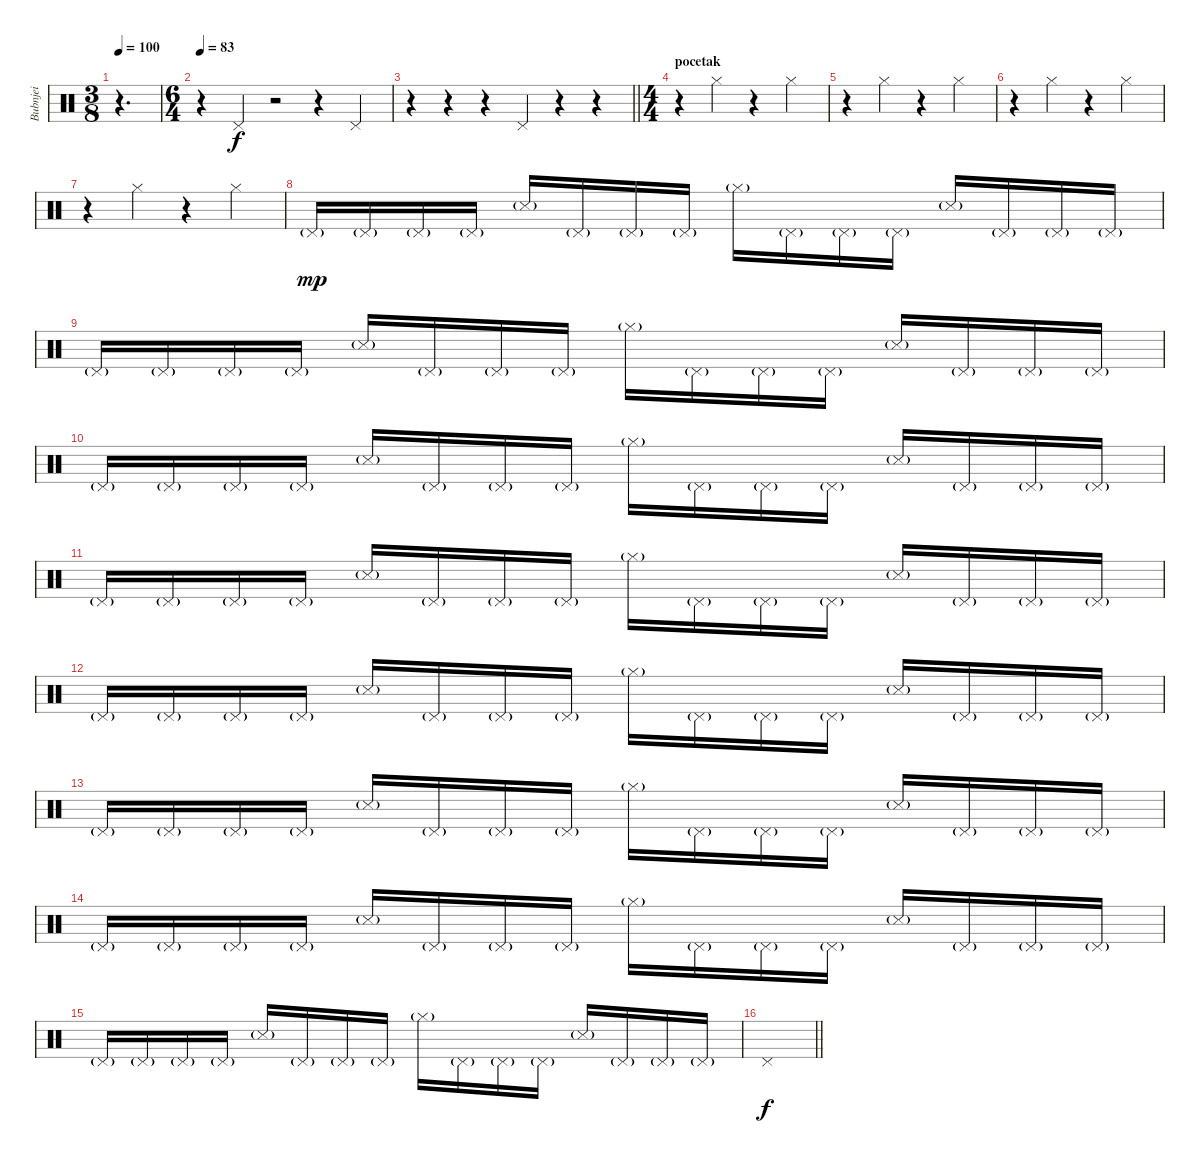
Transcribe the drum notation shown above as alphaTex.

\track ("Bubnjei" "Bubnjei") {instrument percussion}
\staff {score}
\articulation defaults
\ts (3 8)
\tempo 100
\clef neutral
\ks c
r.4{d dy mp} |
\ts (6 4)
\tempo 83
r.4 "Pedal Hi-Hat (hit)".4{dy f} r.2 r.4 "Pedal Hi-Hat (hit)".4 |
\barLineRight lightlight
r.4 r.4 r.4 "Pedal Hi-Hat (hit)".4 r.4 r.4 |
\ts (4 4)
\section ("" "pocetak")
r.4 "Hi-Hat (closed)".4 r.4 "Hi-Hat (closed)".4 |
r.4 "Hi-Hat (closed)".4 r.4 "Hi-Hat (closed)".4 |
r.4 "Hi-Hat (closed)".4 r.4 "Hi-Hat (closed)".4 |
r.4 "Hi-Hat (closed)".4 r.4 "Hi-Hat (closed)".4 |
"Pedal Hi-Hat (hit)"{g}.16{dy mp} "Pedal Hi-Hat (hit)"{g}.16 "Pedal Hi-Hat (hit)"{g}.16 "Pedal Hi-Hat (hit)"{g}.16 "Snare (side stick) 3"{g}.16 "Pedal Hi-Hat (hit)"{g}.16 "Pedal Hi-Hat (hit)"{g}.16 "Pedal Hi-Hat (hit)"{g}.16 "Hi-Hat (closed)"{g}.16 "Pedal Hi-Hat (hit)"{g}.16 "Pedal Hi-Hat (hit)"{g}.16 "Pedal Hi-Hat (hit)"{g}.16 "Snare (side stick) 3"{g}.16 "Pedal Hi-Hat (hit)"{g}.16 "Pedal Hi-Hat (hit)"{g}.16 "Pedal Hi-Hat (hit)"{g}.16 |
"Pedal Hi-Hat (hit)"{g}.16 "Pedal Hi-Hat (hit)"{g}.16 "Pedal Hi-Hat (hit)"{g}.16 "Pedal Hi-Hat (hit)"{g}.16 "Snare (side stick) 3"{g}.16 "Pedal Hi-Hat (hit)"{g}.16 "Pedal Hi-Hat (hit)"{g}.16 "Pedal Hi-Hat (hit)"{g}.16 "Hi-Hat (closed)"{g}.16 "Pedal Hi-Hat (hit)"{g}.16 "Pedal Hi-Hat (hit)"{g}.16 "Pedal Hi-Hat (hit)"{g}.16 "Snare (side stick) 3"{g}.16 "Pedal Hi-Hat (hit)"{g}.16 "Pedal Hi-Hat (hit)"{g}.16 "Pedal Hi-Hat (hit)"{g}.16 |
"Pedal Hi-Hat (hit)"{g}.16 "Pedal Hi-Hat (hit)"{g}.16 "Pedal Hi-Hat (hit)"{g}.16 "Pedal Hi-Hat (hit)"{g}.16 "Snare (side stick) 3"{g}.16 "Pedal Hi-Hat (hit)"{g}.16 "Pedal Hi-Hat (hit)"{g}.16 "Pedal Hi-Hat (hit)"{g}.16 "Hi-Hat (closed)"{g}.16 "Pedal Hi-Hat (hit)"{g}.16 "Pedal Hi-Hat (hit)"{g}.16 "Pedal Hi-Hat (hit)"{g}.16 "Snare (side stick) 3"{g}.16 "Pedal Hi-Hat (hit)"{g}.16 "Pedal Hi-Hat (hit)"{g}.16 "Pedal Hi-Hat (hit)"{g}.16 |
"Pedal Hi-Hat (hit)"{g}.16 "Pedal Hi-Hat (hit)"{g}.16 "Pedal Hi-Hat (hit)"{g}.16 "Pedal Hi-Hat (hit)"{g}.16 "Snare (side stick) 3"{g}.16 "Pedal Hi-Hat (hit)"{g}.16 "Pedal Hi-Hat (hit)"{g}.16 "Pedal Hi-Hat (hit)"{g}.16 "Hi-Hat (closed)"{g}.16 "Pedal Hi-Hat (hit)"{g}.16 "Pedal Hi-Hat (hit)"{g}.16 "Pedal Hi-Hat (hit)"{g}.16 "Snare (side stick) 3"{g}.16 "Pedal Hi-Hat (hit)"{g}.16 "Pedal Hi-Hat (hit)"{g}.16 "Pedal Hi-Hat (hit)"{g}.16 |
"Pedal Hi-Hat (hit)"{g}.16 "Pedal Hi-Hat (hit)"{g}.16 "Pedal Hi-Hat (hit)"{g}.16 "Pedal Hi-Hat (hit)"{g}.16 "Snare (side stick) 3"{g}.16 "Pedal Hi-Hat (hit)"{g}.16 "Pedal Hi-Hat (hit)"{g}.16 "Pedal Hi-Hat (hit)"{g}.16 "Hi-Hat (closed)"{g}.16 "Pedal Hi-Hat (hit)"{g}.16 "Pedal Hi-Hat (hit)"{g}.16 "Pedal Hi-Hat (hit)"{g}.16 "Snare (side stick) 3"{g}.16 "Pedal Hi-Hat (hit)"{g}.16 "Pedal Hi-Hat (hit)"{g}.16 "Pedal Hi-Hat (hit)"{g}.16 |
"Pedal Hi-Hat (hit)"{g}.16 "Pedal Hi-Hat (hit)"{g}.16 "Pedal Hi-Hat (hit)"{g}.16 "Pedal Hi-Hat (hit)"{g}.16 "Snare (side stick) 3"{g}.16 "Pedal Hi-Hat (hit)"{g}.16 "Pedal Hi-Hat (hit)"{g}.16 "Pedal Hi-Hat (hit)"{g}.16 "Hi-Hat (closed)"{g}.16 "Pedal Hi-Hat (hit)"{g}.16 "Pedal Hi-Hat (hit)"{g}.16 "Pedal Hi-Hat (hit)"{g}.16 "Snare (side stick) 3"{g}.16 "Pedal Hi-Hat (hit)"{g}.16 "Pedal Hi-Hat (hit)"{g}.16 "Pedal Hi-Hat (hit)"{g}.16 |
"Pedal Hi-Hat (hit)"{g}.16 "Pedal Hi-Hat (hit)"{g}.16 "Pedal Hi-Hat (hit)"{g}.16 "Pedal Hi-Hat (hit)"{g}.16 "Snare (side stick) 3"{g}.16 "Pedal Hi-Hat (hit)"{g}.16 "Pedal Hi-Hat (hit)"{g}.16 "Pedal Hi-Hat (hit)"{g}.16 "Hi-Hat (closed)"{g}.16 "Pedal Hi-Hat (hit)"{g}.16 "Pedal Hi-Hat (hit)"{g}.16 "Pedal Hi-Hat (hit)"{g}.16 "Snare (side stick) 3"{g}.16 "Pedal Hi-Hat (hit)"{g}.16 "Pedal Hi-Hat (hit)"{g}.16 "Pedal Hi-Hat (hit)"{g}.16 |
"Pedal Hi-Hat (hit)"{g}.16 "Pedal Hi-Hat (hit)"{g}.16 "Pedal Hi-Hat (hit)"{g}.16 "Pedal Hi-Hat (hit)"{g}.16 "Snare (side stick) 3"{g}.16 "Pedal Hi-Hat (hit)"{g}.16 "Pedal Hi-Hat (hit)"{g}.16 "Pedal Hi-Hat (hit)"{g}.16 "Hi-Hat (closed)"{g}.16 "Pedal Hi-Hat (hit)"{g}.16 "Pedal Hi-Hat (hit)"{g}.16 "Pedal Hi-Hat (hit)"{g}.16 "Snare (side stick) 3"{g}.16 "Pedal Hi-Hat (hit)"{g}.16 "Pedal Hi-Hat (hit)"{g}.16 "Pedal Hi-Hat (hit)"{g}.16 |
\barLineRight lightlight "Pedal Hi-Hat (hit)".1{dy f}
